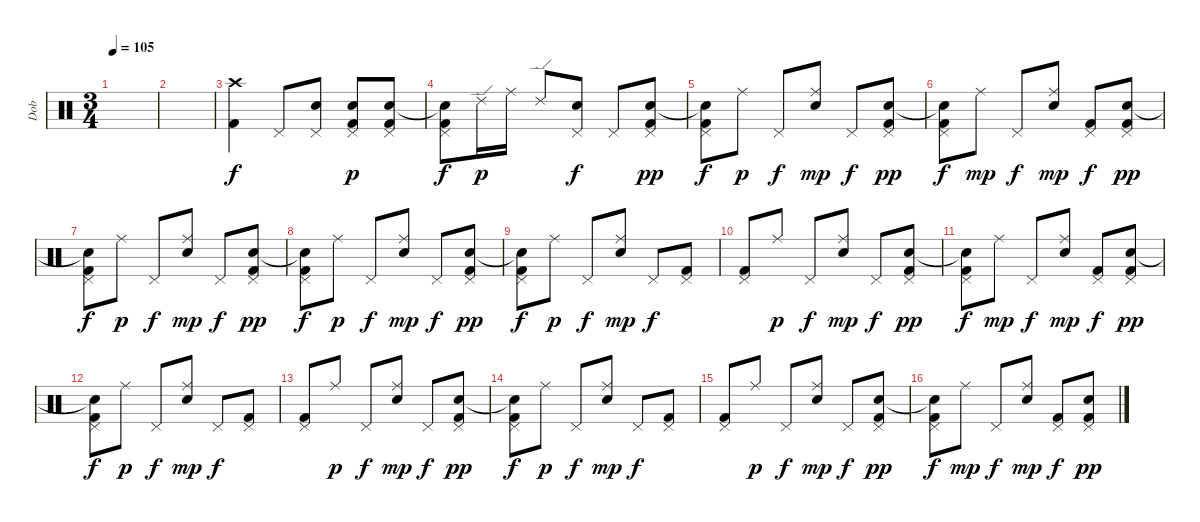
\track ("Dob" "Dob") {instrument percussion}
\staff {score}
\articulation defaults
\ts (3 4)
\tempo 105
\clef neutral
\ks c
|
|
("Kick (hit) 2" "Crash high (hit)").4 "Pedal Hi-Hat (hit)".8{dy f} ("Electric Snare (hit)" "Pedal Hi-Hat (hit)").8 ("Electric Snare (hit)"{tr (40 32)} "Kick (hit) 2" "Pedal Hi-Hat (hit)").8{dy p} ("Electric Snare (hit)"{tr (40 32)} "Kick (hit) 2" "Pedal Hi-Hat (hit)").8 |
("Snare (hit)"{t} "Kick (hit) 2" "Pedal Hi-Hat (hit)").8{dy f} "Ride (edge) 2".16{dy p} "Ride (middle)".16 "Ride (edge) 2".8 ("Electric Snare (hit)" "Pedal Hi-Hat (hit)").8{dy f} "Pedal Hi-Hat (hit)".8 ("Electric Snare (hit)"{tr (40 32)} "Kick (hit) 2" "Pedal Hi-Hat (hit)").8{dy pp} |
("Snare (hit)"{t} "Kick (hit) 2" "Pedal Hi-Hat (hit)").8{dy f} "Ride (middle)".8{dy p} "Pedal Hi-Hat (hit)".8{dy f} ("Electric Snare (hit)" "Ride (middle)").8{dy mp} "Pedal Hi-Hat (hit)".8{dy f} ("Electric Snare (hit)"{tr (40 32)} "Kick (hit) 2" "Pedal Hi-Hat (hit)").8{dy pp} |
("Snare (hit)"{t} "Kick (hit) 2" "Pedal Hi-Hat (hit)").8{dy f} "Ride (middle)".8{dy mp} "Pedal Hi-Hat (hit)".8{dy f} ("Electric Snare (hit)" "Ride (middle)").8{dy mp} ("Kick (hit) 2" "Pedal Hi-Hat (hit)").8{dy f} ("Electric Snare (hit)"{tr (40 32)} "Kick (hit) 2" "Pedal Hi-Hat (hit)").8{dy pp} |
("Snare (hit)"{t} "Kick (hit) 2" "Pedal Hi-Hat (hit)").8{dy f} "Ride (middle)".8{dy p} "Pedal Hi-Hat (hit)".8{dy f} ("Electric Snare (hit)" "Ride (middle)").8{dy mp} "Pedal Hi-Hat (hit)".8{dy f} ("Electric Snare (hit)"{tr (40 32)} "Kick (hit) 2" "Pedal Hi-Hat (hit)").8{dy pp} |
("Snare (hit)"{t} "Kick (hit) 2" "Pedal Hi-Hat (hit)").8{dy f} "Ride (middle)".8{dy p} "Pedal Hi-Hat (hit)".8{dy f} ("Electric Snare (hit)" "Ride (middle)").8{dy mp} "Pedal Hi-Hat (hit)".8{dy f} ("Electric Snare (hit)"{tr (40 32)} "Kick (hit) 2" "Pedal Hi-Hat (hit)").8{dy pp} |
("Snare (hit)"{t} "Kick (hit) 2" "Pedal Hi-Hat (hit)").8{dy f} "Ride (middle)".8{dy p} "Pedal Hi-Hat (hit)".8{dy f} ("Electric Snare (hit)" "Ride (middle)").8{dy mp} "Pedal Hi-Hat (hit)".8{dy f} ("Kick (hit) 2" "Pedal Hi-Hat (hit)").8 |
("Kick (hit) 2" "Pedal Hi-Hat (hit)").8 "Ride (middle)".8{dy p} "Pedal Hi-Hat (hit)".8{dy f} ("Electric Snare (hit)" "Ride (middle)").8{dy mp} "Pedal Hi-Hat (hit)".8{dy f} ("Electric Snare (hit)"{tr (40 32)} "Kick (hit) 2" "Pedal Hi-Hat (hit)").8{dy pp} |
("Snare (hit)"{t} "Kick (hit) 2" "Pedal Hi-Hat (hit)").8{dy f} "Ride (middle)".8{dy mp} "Pedal Hi-Hat (hit)".8{dy f} ("Electric Snare (hit)" "Ride (middle)").8{dy mp} ("Kick (hit) 2" "Pedal Hi-Hat (hit)").8{dy f} ("Electric Snare (hit)"{tr (40 32)} "Kick (hit) 2" "Pedal Hi-Hat (hit)").8{dy pp} |
("Snare (hit)"{t} "Kick (hit) 2" "Pedal Hi-Hat (hit)").8{dy f} "Ride (middle)".8{dy p} "Pedal Hi-Hat (hit)".8{dy f} ("Electric Snare (hit)" "Ride (middle)").8{dy mp} "Pedal Hi-Hat (hit)".8{dy f} ("Kick (hit) 2" "Pedal Hi-Hat (hit)").8 |
("Kick (hit) 2" "Pedal Hi-Hat (hit)").8 "Ride (middle)".8{dy p} "Pedal Hi-Hat (hit)".8{dy f} ("Electric Snare (hit)" "Ride (middle)").8{dy mp} "Pedal Hi-Hat (hit)".8{dy f} ("Electric Snare (hit)"{tr (40 32)} "Kick (hit) 2" "Pedal Hi-Hat (hit)").8{dy pp} |
("Snare (hit)"{t} "Kick (hit) 2" "Pedal Hi-Hat (hit)").8{dy f} "Ride (middle)".8{dy p} "Pedal Hi-Hat (hit)".8{dy f} ("Electric Snare (hit)" "Ride (middle)").8{dy mp} "Pedal Hi-Hat (hit)".8{dy f} ("Kick (hit) 2" "Pedal Hi-Hat (hit)").8 |
("Kick (hit) 2" "Pedal Hi-Hat (hit)").8 "Ride (middle)".8{dy p} "Pedal Hi-Hat (hit)".8{dy f} ("Electric Snare (hit)" "Ride (middle)").8{dy mp} "Pedal Hi-Hat (hit)".8{dy f} ("Electric Snare (hit)"{tr (40 32)} "Kick (hit) 2" "Pedal Hi-Hat (hit)").8{dy pp} |
("Snare (hit)"{t} "Kick (hit) 2" "Pedal Hi-Hat (hit)").8{dy f} "Ride (middle)".8{dy mp} "Pedal Hi-Hat (hit)".8{dy f} ("Electric Snare (hit)" "Ride (middle)").8{dy mp} ("Kick (hit) 2" "Pedal Hi-Hat (hit)").8{dy f} ("Electric Snare (hit)"{tr (40 32)} "Kick (hit) 2" "Pedal Hi-Hat (hit)").8{dy pp}
